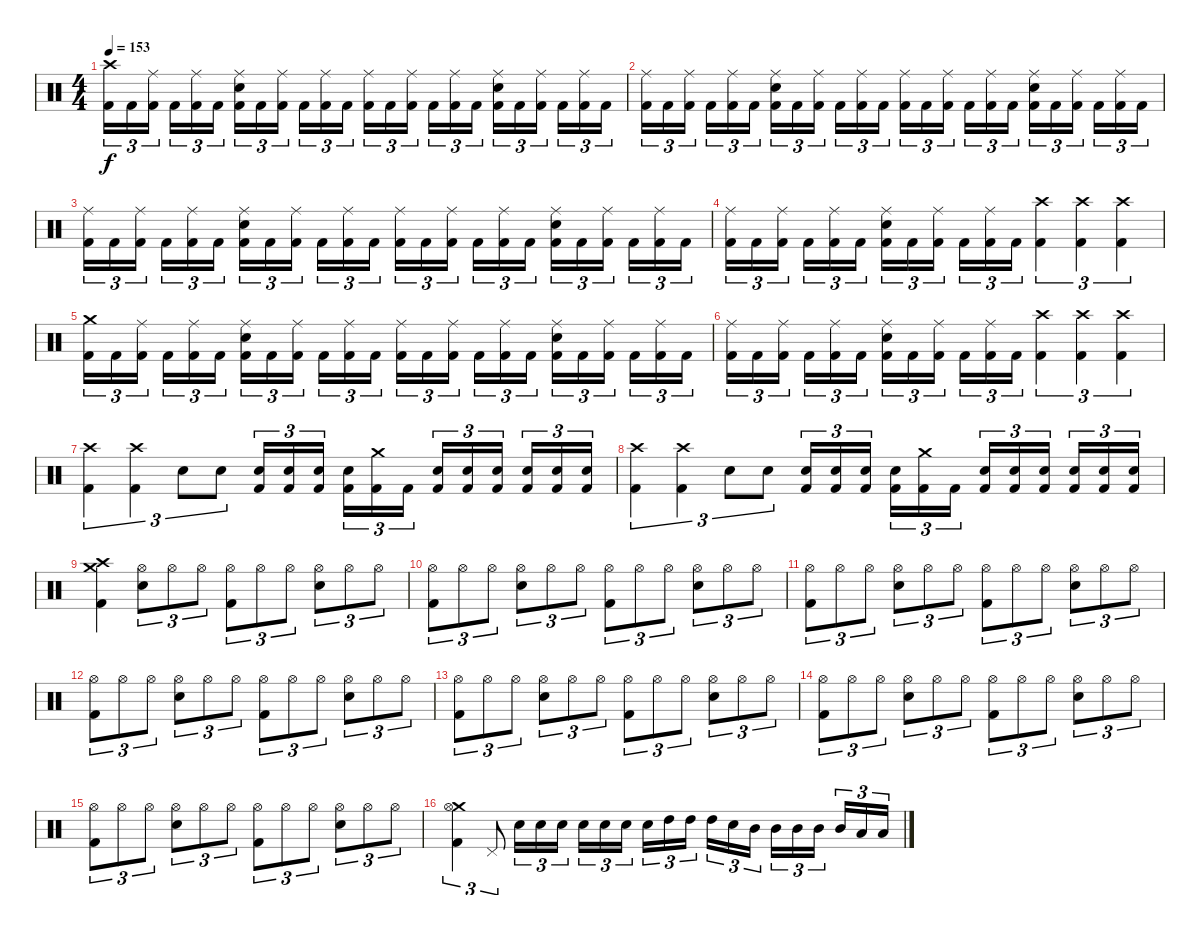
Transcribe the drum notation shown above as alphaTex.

\track "" {instrument percussion}
\staff {score}
\articulation defaults
\ts (4 4)
\section ("" "")
\tempo 153
\clef neutral
\ks c
("Crash high (hit)" "Kick (hit) 2").16{tu (3 2) dy f} "Kick (hit) 2".16{tu (3 2)} ("Ride (middle)" "Kick (hit) 2").16{tu (3 2)} "Kick (hit) 2".16{tu (3 2)} ("Ride (middle)" "Kick (hit) 2").16{tu (3 2)} "Kick (hit) 2".16{tu (3 2)} ("Ride (middle)" "Electric Snare (hit)" "Kick (hit) 2").16{tu (3 2)} "Kick (hit) 2".16{tu (3 2)} ("Ride (middle)" "Kick (hit) 2").16{tu (3 2)} "Kick (hit) 2".16{tu (3 2)} ("Ride (middle)" "Kick (hit) 2").16{tu (3 2)} "Kick (hit) 2".16{tu (3 2)} ("Ride (middle)" "Kick (hit) 2").16{tu (3 2)} "Kick (hit) 2".16{tu (3 2)} ("Ride (middle)" "Kick (hit) 2").16{tu (3 2)} "Kick (hit) 2".16{tu (3 2)} ("Ride (middle)" "Kick (hit) 2").16{tu (3 2)} "Kick (hit) 2".16{tu (3 2)} ("Ride (middle)" "Electric Snare (hit)" "Kick (hit) 2").16{tu (3 2)} "Kick (hit) 2".16{tu (3 2)} ("Ride (middle)" "Kick (hit) 2").16{tu (3 2)} "Kick (hit) 2".16{tu (3 2)} ("Ride (middle)" "Kick (hit) 2").16{tu (3 2)} "Kick (hit) 2".16{tu (3 2)} |
("Ride (middle)" "Kick (hit) 2").16{tu (3 2)} "Kick (hit) 2".16{tu (3 2)} ("Ride (middle)" "Kick (hit) 2").16{tu (3 2)} "Kick (hit) 2".16{tu (3 2)} ("Ride (middle)" "Kick (hit) 2").16{tu (3 2)} "Kick (hit) 2".16{tu (3 2)} ("Ride (middle)" "Electric Snare (hit)" "Kick (hit) 2").16{tu (3 2)} "Kick (hit) 2".16{tu (3 2)} ("Ride (middle)" "Kick (hit) 2").16{tu (3 2)} "Kick (hit) 2".16{tu (3 2)} ("Ride (middle)" "Kick (hit) 2").16{tu (3 2)} "Kick (hit) 2".16{tu (3 2)} ("Ride (middle)" "Kick (hit) 2").16{tu (3 2)} "Kick (hit) 2".16{tu (3 2)} ("Ride (middle)" "Kick (hit) 2").16{tu (3 2)} "Kick (hit) 2".16{tu (3 2)} ("Ride (middle)" "Kick (hit) 2").16{tu (3 2)} "Kick (hit) 2".16{tu (3 2)} ("Ride (middle)" "Electric Snare (hit)" "Kick (hit) 2").16{tu (3 2)} "Kick (hit) 2".16{tu (3 2)} ("Ride (middle)" "Kick (hit) 2").16{tu (3 2)} "Kick (hit) 2".16{tu (3 2)} ("Ride (middle)" "Kick (hit) 2").16{tu (3 2)} "Kick (hit) 2".16{tu (3 2)} |
("Ride (middle)" "Kick (hit) 2").16{tu (3 2)} "Kick (hit) 2".16{tu (3 2)} ("Ride (middle)" "Kick (hit) 2").16{tu (3 2)} "Kick (hit) 2".16{tu (3 2)} ("Ride (middle)" "Kick (hit) 2").16{tu (3 2)} "Kick (hit) 2".16{tu (3 2)} ("Ride (middle)" "Electric Snare (hit)" "Kick (hit) 2").16{tu (3 2)} "Kick (hit) 2".16{tu (3 2)} ("Ride (middle)" "Kick (hit) 2").16{tu (3 2)} "Kick (hit) 2".16{tu (3 2)} ("Ride (middle)" "Kick (hit) 2").16{tu (3 2)} "Kick (hit) 2".16{tu (3 2)} ("Ride (middle)" "Kick (hit) 2").16{tu (3 2)} "Kick (hit) 2".16{tu (3 2)} ("Ride (middle)" "Kick (hit) 2").16{tu (3 2)} "Kick (hit) 2".16{tu (3 2)} ("Ride (middle)" "Kick (hit) 2").16{tu (3 2)} "Kick (hit) 2".16{tu (3 2)} ("Ride (middle)" "Electric Snare (hit)" "Kick (hit) 2").16{tu (3 2)} "Kick (hit) 2".16{tu (3 2)} ("Ride (middle)" "Kick (hit) 2").16{tu (3 2)} "Kick (hit) 2".16{tu (3 2)} ("Ride (middle)" "Kick (hit) 2").16{tu (3 2)} "Kick (hit) 2".16{tu (3 2)} |
("Ride (middle)" "Kick (hit) 2").16{tu (3 2)} "Kick (hit) 2".16{tu (3 2)} ("Ride (middle)" "Kick (hit) 2").16{tu (3 2)} "Kick (hit) 2".16{tu (3 2)} ("Ride (middle)" "Kick (hit) 2").16{tu (3 2)} "Kick (hit) 2".16{tu (3 2)} ("Ride (middle)" "Electric Snare (hit)" "Kick (hit) 2").16{tu (3 2)} "Kick (hit) 2".16{tu (3 2)} ("Ride (middle)" "Kick (hit) 2").16{tu (3 2)} "Kick (hit) 2".16{tu (3 2)} ("Ride (middle)" "Kick (hit) 2").16{tu (3 2)} "Kick (hit) 2".16{tu (3 2)} ("Crash high (hit)" "Kick (hit) 2").4{tu (3 2)} ("Crash high (hit)" "Kick (hit) 2").4{tu (3 2)} ("Crash high (hit)" "Kick (hit) 2").4{tu (3 2)} |
("Crash medium (hit)" "Kick (hit) 2").16{tu (3 2)} "Kick (hit) 2".16{tu (3 2)} ("Ride (middle)" "Kick (hit) 2").16{tu (3 2)} "Kick (hit) 2".16{tu (3 2)} ("Ride (middle)" "Kick (hit) 2").16{tu (3 2)} "Kick (hit) 2".16{tu (3 2)} ("Ride (middle)" "Electric Snare (hit)" "Kick (hit) 2").16{tu (3 2)} "Kick (hit) 2".16{tu (3 2)} ("Ride (middle)" "Kick (hit) 2").16{tu (3 2)} "Kick (hit) 2".16{tu (3 2)} ("Ride (middle)" "Kick (hit) 2").16{tu (3 2)} "Kick (hit) 2".16{tu (3 2)} ("Ride (middle)" "Kick (hit) 2").16{tu (3 2)} "Kick (hit) 2".16{tu (3 2)} ("Ride (middle)" "Kick (hit) 2").16{tu (3 2)} "Kick (hit) 2".16{tu (3 2)} ("Ride (middle)" "Kick (hit) 2").16{tu (3 2)} "Kick (hit) 2".16{tu (3 2)} ("Ride (middle)" "Electric Snare (hit)" "Kick (hit) 2").16{tu (3 2)} "Kick (hit) 2".16{tu (3 2)} ("Ride (middle)" "Kick (hit) 2").16{tu (3 2)} "Kick (hit) 2".16{tu (3 2)} ("Ride (middle)" "Kick (hit) 2").16{tu (3 2)} "Kick (hit) 2".16{tu (3 2)} |
("Ride (middle)" "Kick (hit) 2").16{tu (3 2)} "Kick (hit) 2".16{tu (3 2)} ("Ride (middle)" "Kick (hit) 2").16{tu (3 2)} "Kick (hit) 2".16{tu (3 2)} ("Ride (middle)" "Kick (hit) 2").16{tu (3 2)} "Kick (hit) 2".16{tu (3 2)} ("Ride (middle)" "Electric Snare (hit)" "Kick (hit) 2").16{tu (3 2)} "Kick (hit) 2".16{tu (3 2)} ("Ride (middle)" "Kick (hit) 2").16{tu (3 2)} "Kick (hit) 2".16{tu (3 2)} ("Ride (middle)" "Kick (hit) 2").16{tu (3 2)} "Kick (hit) 2".16{tu (3 2)} ("Crash high (hit)" "Kick (hit) 2").4{tu (3 2)} ("Crash high (hit)" "Kick (hit) 2").4{tu (3 2)} ("Crash high (hit)" "Kick (hit) 2").4{tu (3 2)} |
("Crash high (hit)" "Kick (hit) 2").4{tu (3 2)} ("Crash high (hit)" "Kick (hit) 2").4{tu (3 2)} "Electric Snare (hit)".8{tu (3 2)} "Electric Snare (hit)".8{tu (3 2)} ("Electric Snare (hit)" "Kick (hit) 2").16{tu (3 2)} ("Electric Snare (hit)" "Kick (hit) 2").16{tu (3 2)} ("Electric Snare (hit)" "Kick (hit) 2").16{tu (3 2)} ("Electric Snare (hit)" "Kick (hit) 2").16{tu (3 2)} ("Crash medium (hit)" "Kick (hit) 2").16{tu (3 2)} "Kick (hit) 2".16{tu (3 2)} ("Electric Snare (hit)" "Kick (hit) 2").16{tu (3 2)} ("Electric Snare (hit)" "Kick (hit) 2").16{tu (3 2)} ("Electric Snare (hit)" "Kick (hit) 2").16{tu (3 2)} ("Electric Snare (hit)" "Kick (hit) 2").16{tu (3 2)} ("Electric Snare (hit)" "Kick (hit) 2").16{tu (3 2)} ("Electric Snare (hit)" "Kick (hit) 2").16{tu (3 2)} |
("Crash high (hit)" "Kick (hit) 2").4{tu (3 2)} ("Crash high (hit)" "Kick (hit) 2").4{tu (3 2)} "Electric Snare (hit)".8{tu (3 2)} "Electric Snare (hit)".8{tu (3 2)} ("Electric Snare (hit)" "Kick (hit) 2").16{tu (3 2)} ("Electric Snare (hit)" "Kick (hit) 2").16{tu (3 2)} ("Electric Snare (hit)" "Kick (hit) 2").16{tu (3 2)} ("Electric Snare (hit)" "Kick (hit) 2").16{tu (3 2)} ("Crash medium (hit)" "Kick (hit) 2").16{tu (3 2)} "Kick (hit) 2".16{tu (3 2)} ("Electric Snare (hit)" "Kick (hit) 2").16{tu (3 2)} ("Electric Snare (hit)" "Kick (hit) 2").16{tu (3 2)} ("Electric Snare (hit)" "Kick (hit) 2").16{tu (3 2)} ("Electric Snare (hit)" "Kick (hit) 2").16{tu (3 2)} ("Electric Snare (hit)" "Kick (hit) 2").16{tu (3 2)} ("Electric Snare (hit)" "Kick (hit) 2").16{tu (3 2)} |
\section ("" "")
("Crash high (hit)" "Crash medium (hit)" "Kick (hit) 2").4 ("Hi-Hat (open)" "Electric Snare (hit)").8{tu (3 2)} "Hi-Hat (open)".8{tu (3 2)} "Hi-Hat (open)".8{tu (3 2)} ("Hi-Hat (open)" "Kick (hit) 2").8{tu (3 2)} "Hi-Hat (open)".8{tu (3 2)} "Hi-Hat (open)".8{tu (3 2)} ("Hi-Hat (open)" "Electric Snare (hit)").8{tu (3 2)} "Hi-Hat (open)".8{tu (3 2)} "Hi-Hat (open)".8{tu (3 2)} |
("Hi-Hat (open)" "Kick (hit) 2").8{tu (3 2)} "Hi-Hat (open)".8{tu (3 2)} "Hi-Hat (open)".8{tu (3 2)} ("Hi-Hat (open)" "Electric Snare (hit)").8{tu (3 2)} "Hi-Hat (open)".8{tu (3 2)} "Hi-Hat (open)".8{tu (3 2)} ("Hi-Hat (open)" "Kick (hit) 2").8{tu (3 2)} "Hi-Hat (open)".8{tu (3 2)} "Hi-Hat (open)".8{tu (3 2)} ("Hi-Hat (open)" "Electric Snare (hit)").8{tu (3 2)} "Hi-Hat (open)".8{tu (3 2)} "Hi-Hat (open)".8{tu (3 2)} |
("Hi-Hat (open)" "Kick (hit) 2").8{tu (3 2)} "Hi-Hat (open)".8{tu (3 2)} "Hi-Hat (open)".8{tu (3 2)} ("Hi-Hat (open)" "Electric Snare (hit)").8{tu (3 2)} "Hi-Hat (open)".8{tu (3 2)} "Hi-Hat (open)".8{tu (3 2)} ("Hi-Hat (open)" "Kick (hit) 2").8{tu (3 2)} "Hi-Hat (open)".8{tu (3 2)} "Hi-Hat (open)".8{tu (3 2)} ("Hi-Hat (open)" "Electric Snare (hit)").8{tu (3 2)} "Hi-Hat (open)".8{tu (3 2)} "Hi-Hat (open)".8{tu (3 2)} |
("Hi-Hat (open)" "Kick (hit) 2").8{tu (3 2)} "Hi-Hat (open)".8{tu (3 2)} "Hi-Hat (open)".8{tu (3 2)} ("Hi-Hat (open)" "Electric Snare (hit)").8{tu (3 2)} "Hi-Hat (open)".8{tu (3 2)} "Hi-Hat (open)".8{tu (3 2)} ("Hi-Hat (open)" "Kick (hit) 2").8{tu (3 2)} "Hi-Hat (open)".8{tu (3 2)} "Hi-Hat (open)".8{tu (3 2)} ("Hi-Hat (open)" "Electric Snare (hit)").8{tu (3 2)} "Hi-Hat (open)".8{tu (3 2)} "Hi-Hat (open)".8{tu (3 2)} |
("Hi-Hat (open)" "Kick (hit) 2").8{tu (3 2)} "Hi-Hat (open)".8{tu (3 2)} "Hi-Hat (open)".8{tu (3 2)} ("Hi-Hat (open)" "Electric Snare (hit)").8{tu (3 2)} "Hi-Hat (open)".8{tu (3 2)} "Hi-Hat (open)".8{tu (3 2)} ("Hi-Hat (open)" "Kick (hit) 2").8{tu (3 2)} "Hi-Hat (open)".8{tu (3 2)} "Hi-Hat (open)".8{tu (3 2)} ("Hi-Hat (open)" "Electric Snare (hit)").8{tu (3 2)} "Hi-Hat (open)".8{tu (3 2)} "Hi-Hat (open)".8{tu (3 2)} |
("Hi-Hat (open)" "Kick (hit) 2").8{tu (3 2)} "Hi-Hat (open)".8{tu (3 2)} "Hi-Hat (open)".8{tu (3 2)} ("Hi-Hat (open)" "Electric Snare (hit)").8{tu (3 2)} "Hi-Hat (open)".8{tu (3 2)} "Hi-Hat (open)".8{tu (3 2)} ("Hi-Hat (open)" "Kick (hit) 2").8{tu (3 2)} "Hi-Hat (open)".8{tu (3 2)} "Hi-Hat (open)".8{tu (3 2)} ("Hi-Hat (open)" "Electric Snare (hit)").8{tu (3 2)} "Hi-Hat (open)".8{tu (3 2)} "Hi-Hat (open)".8{tu (3 2)} |
("Hi-Hat (open)" "Kick (hit) 2").8{tu (3 2)} "Hi-Hat (open)".8{tu (3 2)} "Hi-Hat (open)".8{tu (3 2)} ("Hi-Hat (open)" "Electric Snare (hit)").8{tu (3 2)} "Hi-Hat (open)".8{tu (3 2)} "Hi-Hat (open)".8{tu (3 2)} ("Hi-Hat (open)" "Kick (hit) 2").8{tu (3 2)} "Hi-Hat (open)".8{tu (3 2)} "Hi-Hat (open)".8{tu (3 2)} ("Hi-Hat (open)" "Electric Snare (hit)").8{tu (3 2)} "Hi-Hat (open)".8{tu (3 2)} "Hi-Hat (open)".8{tu (3 2)} |
("Crash medium (hit)" "Hi-Hat (open)" "Kick (hit) 2").4{tu (3 2)} "Pedal Hi-Hat (hit)".8{tu (3 2)} "Electric Snare (hit)".16{tu (3 2)} "Electric Snare (hit)".16{tu (3 2)} "Electric Snare (hit)".16{tu (3 2)} "Electric Snare (hit)".16{tu (3 2)} "Electric Snare (hit)".16{tu (3 2)} "Electric Snare (hit)".16{tu (3 2)} "Electric Snare (hit)".16{tu (3 2)} "High Tom (hit)".16{tu (3 2)} "High Tom (hit)".16{tu (3 2)} "High Tom (hit)".16{tu (3 2)} "Electric Snare (hit)".16{tu (3 2)} "Mid Tom (hit)".16{tu (3 2)} "Mid Tom (hit)".16{tu (3 2)} "Mid Tom (hit)".16{tu (3 2)} "Mid Tom (hit)".16{tu (3 2)} "Mid Tom (hit)".16{tu (3 2)} "Low Tom (hit)".16{tu (3 2)} "Low Tom (hit)".16{tu (3 2)}
